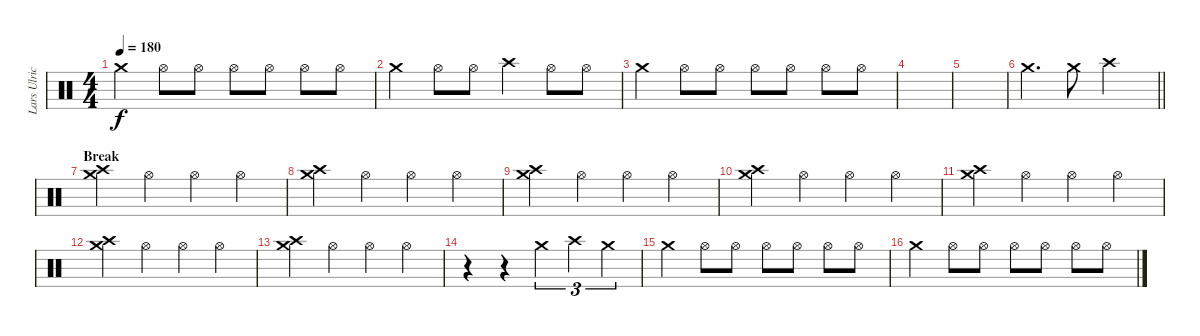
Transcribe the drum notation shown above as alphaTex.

\track ("Lars Ulrich" "Lars Ulric") {instrument percussion}
\staff {score}
\articulation defaults
\ts (4 4)
\tempo 180
\clef neutral
\ks c "Crash medium (hit)".4{dy f} "Hi-Hat (open)".8 "Hi-Hat (open)".8 "Hi-Hat (open)".8 "Hi-Hat (open)".8 "Hi-Hat (open)".8 "Hi-Hat (open)".8
|
"Crash medium (hit)".4 "Hi-Hat (open)".8 "Hi-Hat (open)".8 "Crash high (hit)".4 "Hi-Hat (open)".8 "Hi-Hat (open)".8 |
"Crash medium (hit)".4 "Hi-Hat (open)".8 "Hi-Hat (open)".8 "Hi-Hat (open)".8 "Hi-Hat (open)".8 "Hi-Hat (open)".8 "Hi-Hat (open)".8 |
|
|
\barLineRight lightlight "Crash medium (hit)".4{d} "Crash medium (hit)".8 "Crash high (hit)".2
|
\section ("" "Break")
("Crash medium (hit)" "Crash high (hit)").4 "Hi-Hat (open)".4 "Hi-Hat (open)".4 "Hi-Hat (open)".4 |
("Crash medium (hit)" "Crash high (hit)").4 "Hi-Hat (open)".4 "Hi-Hat (open)".4 "Hi-Hat (open)".4 |
("Crash medium (hit)" "Crash high (hit)").4 "Hi-Hat (open)".4 "Hi-Hat (open)".4 "Hi-Hat (open)".4 |
("Crash medium (hit)" "Crash high (hit)").4 "Hi-Hat (open)".4 "Hi-Hat (open)".4 "Hi-Hat (open)".4 |
("Crash medium (hit)" "Crash high (hit)").4 "Hi-Hat (open)".4 "Hi-Hat (open)".4 "Hi-Hat (open)".4 |
("Crash medium (hit)" "Crash high (hit)").4 "Hi-Hat (open)".4 "Hi-Hat (open)".4 "Hi-Hat (open)".4 |
("Crash medium (hit)" "Crash high (hit)").4 "Hi-Hat (open)".4 "Hi-Hat (open)".4 "Hi-Hat (open)".4 |
r.4 r.4 "Crash medium (hit)".4{tu (3 2)} "Crash high (hit)".4{tu (3 2)} "Crash medium (hit)".4{tu (3 2)} |
"Crash medium (hit)".4 "Hi-Hat (open)".8 "Hi-Hat (open)".8 "Hi-Hat (open)".8 "Hi-Hat (open)".8 "Hi-Hat (open)".8 "Hi-Hat (open)".8 |
"Crash medium (hit)".4 "Hi-Hat (open)".8 "Hi-Hat (open)".8 "Hi-Hat (open)".8 "Hi-Hat (open)".8 "Hi-Hat (open)".8 "Hi-Hat (open)".8
